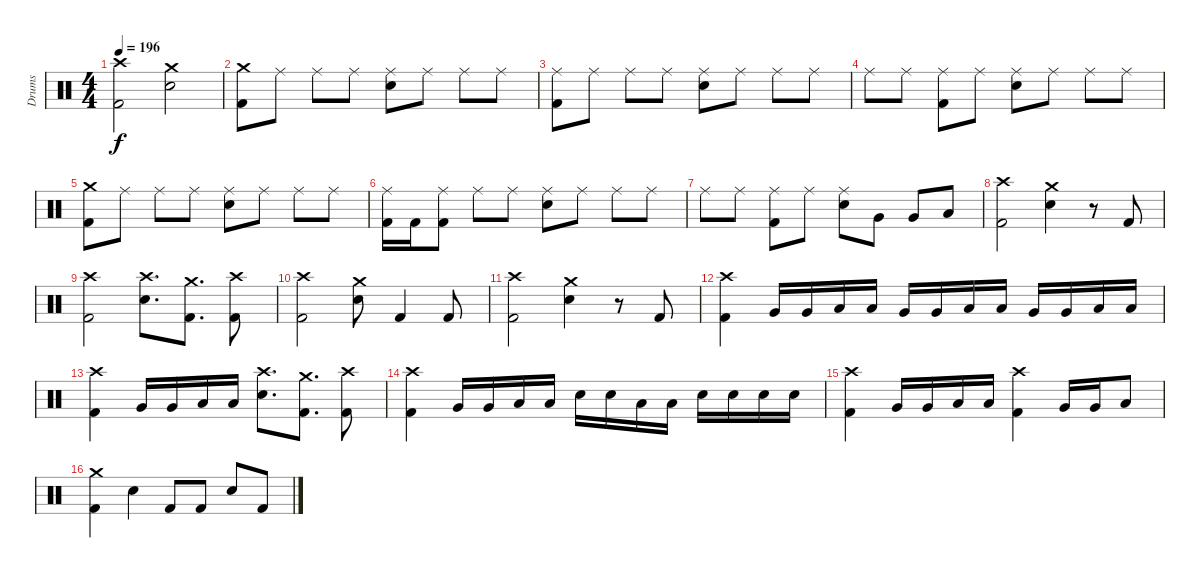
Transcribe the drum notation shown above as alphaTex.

\track ("Drums" "Drums") {instrument percussion}
\staff
\articulation defaults
\ts (4 4)
\tempo 196
\clef neutral
\ks c
("Crash high (hit)" "Kick (hit) 2").2{dy f} ("Crash medium (hit)" "Electric Snare (hit)").2 |
("Crash medium (hit)" "Kick (hit) 2").8 "Ride (middle)".8 "Ride (middle)".8 "Ride (middle)".8 ("Ride (middle)" "Electric Snare (hit)").8 "Ride (middle)".8 "Ride (middle)".8 "Ride (middle)".8 |
("Ride (middle)" "Kick (hit) 2").8 "Ride (middle)".8 "Ride (middle)".8 "Ride (middle)".8 ("Ride (middle)" "Electric Snare (hit)").8 "Ride (middle)".8 "Ride (middle)".8 "Ride (middle)".8 |
"Ride (middle)".8 "Ride (middle)".8 ("Ride (middle)" "Kick (hit) 2").8 "Ride (middle)".8 ("Ride (middle)" "Electric Snare (hit)").8 "Ride (middle)".8 "Ride (middle)".8 "Ride (middle)".8 |
("Crash medium (hit)" "Kick (hit) 2").8 "Ride (middle)".8 "Ride (middle)".8 "Ride (middle)".8 ("Ride (middle)" "Electric Snare (hit)").8 "Ride (middle)".8 "Ride (middle)".8 "Ride (middle)".8 |
("Ride (middle)" "Kick (hit) 2").16 "Kick (hit) 2".16 ("Ride (middle)" "Kick (hit) 2").8 "Ride (middle)".8 "Ride (middle)".8 ("Ride (middle)" "Electric Snare (hit)").8 "Ride (middle)".8 "Ride (middle)".8 "Ride (middle)".8 |
"Ride (middle)".8 "Ride (middle)".8 ("Ride (middle)" "Kick (hit) 2").8 "Ride (middle)".8 ("Ride (middle)" "Electric Snare (hit)").8 "Very Low Tom (hit)".8 "Very Low Tom (hit)".8 "Low Floor Tom (hit)".8 |
("Crash high (hit)" "Kick (hit) 2").2 ("Crash medium (hit)" "Electric Snare (hit)").4 r.8 "Kick (hit) 2".8 |
("Crash high (hit)" "Kick (hit) 2").2 ("Crash high (hit)" "Electric Snare (hit)").8{d} ("Crash medium (hit)" "Kick (hit) 2").8{d} ("Crash high (hit)" "Kick (hit) 2").8 |
("Crash high (hit)" "Kick (hit) 2").2 ("Crash medium (hit)" "Electric Snare (hit)").8 "Kick (hit) 2".4 "Kick (hit) 2".8 |
("Crash high (hit)" "Kick (hit) 2").2 ("Crash medium (hit)" "Electric Snare (hit)").4 r.8 "Kick (hit) 2".8 |
("Crash high (hit)" "Kick (hit) 2").4 "Very Low Tom (hit)".16 "Very Low Tom (hit)".16 "Low Floor Tom (hit)".16 "Low Floor Tom (hit)".16 "Very Low Tom (hit)".16 "Very Low Tom (hit)".16 "Low Floor Tom (hit)".16 "Low Floor Tom (hit)".16 "Very Low Tom (hit)".16 "Very Low Tom (hit)".16 "Low Floor Tom (hit)".16 "Low Floor Tom (hit)".16 |
("Crash high (hit)" "Kick (hit) 2").4 "Very Low Tom (hit)".16 "Very Low Tom (hit)".16 "Low Floor Tom (hit)".16 "Low Floor Tom (hit)".16 ("Crash high (hit)" "Electric Snare (hit)").8{d} ("Crash medium (hit)" "Kick (hit) 2").8{d} ("Crash high (hit)" "Kick (hit) 2").8 |
("Crash high (hit)" "Kick (hit) 2").4 "Very Low Tom (hit)".16 "Very Low Tom (hit)".16 "Low Floor Tom (hit)".16 "Low Floor Tom (hit)".16 "Electric Snare (hit)".16 "Electric Snare (hit)".16 "Low Floor Tom (hit)".16 "Low Floor Tom (hit)".16 "Electric Snare (hit)".16 "Electric Snare (hit)".16 "Electric Snare (hit)".16 "Electric Snare (hit)".16 |
("Crash high (hit)" "Kick (hit) 2").4 "Very Low Tom (hit)".16 "Very Low Tom (hit)".16 "Low Floor Tom (hit)".16 "Low Floor Tom (hit)".16 ("Crash high (hit)" "Kick (hit) 2").4 "Very Low Tom (hit)".16 "Very Low Tom (hit)".16 "Low Floor Tom (hit)".8 |
("Crash medium (hit)" "Kick (hit) 2").4 "Electric Snare (hit)".4 "Kick (hit) 2".8 "Kick (hit) 2".8 "Electric Snare (hit)".8 "Kick (hit) 2".8
